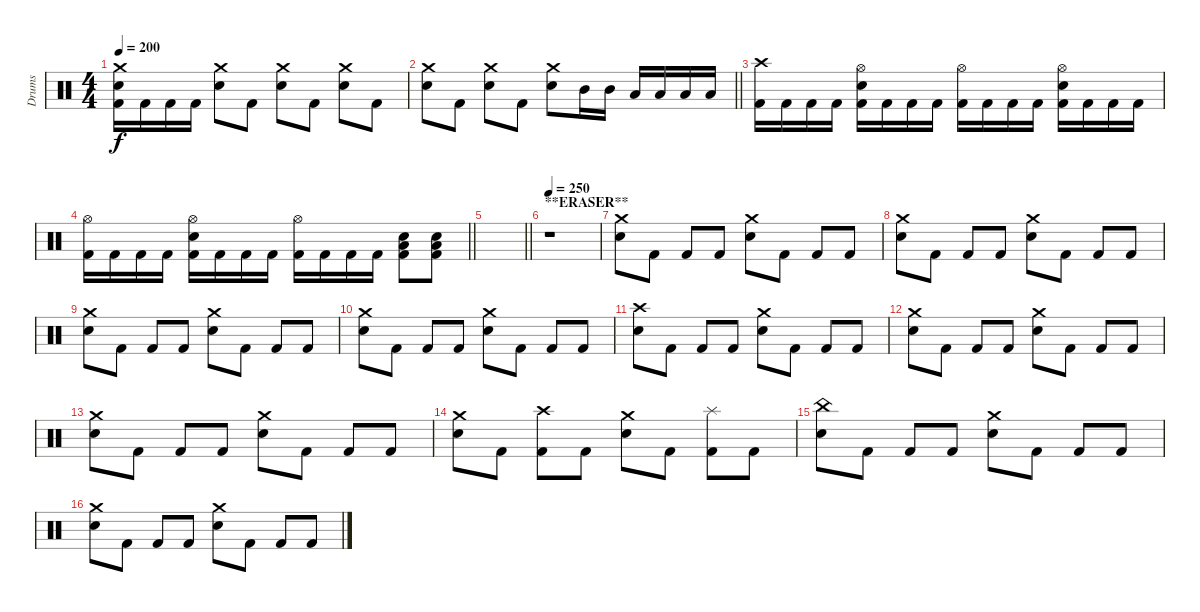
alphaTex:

\track ("Drums" "Drums") {instrument percussion}
\staff {score}
\articulation defaults
\ts (4 4)
\tempo 200
\clef neutral
\ks c
("Crash medium (hit)" "Electric Snare (hit)" "Kick (hit) 2").16{dy f} "Kick (hit) 2".16 "Kick (hit) 2".16 "Kick (hit) 2".16 ("Crash medium (hit)" "Electric Snare (hit)").8 "Kick (hit) 2".8 ("Crash medium (hit)" "Electric Snare (hit)").8 "Kick (hit) 2".8 ("Crash medium (hit)" "Electric Snare (hit)").8 "Kick (hit) 2".8 |
\barLineRight lightlight
("Crash medium (hit)" "Electric Snare (hit)").8 "Kick (hit) 2".8 ("Crash medium (hit)" "Electric Snare (hit)").8 "Kick (hit) 2".8 ("Crash medium (hit)" "Electric Snare (hit)").8 "Mid Tom (hit)".16 "Mid Tom (hit)".16 "Low Tom (hit)".16 "Low Tom (hit)".16 "Low Floor Tom (hit)".16 "Low Floor Tom (hit)".16 |
("Crash high (hit)" "Kick (hit) 2").16 "Kick (hit) 2".16 "Kick (hit) 2".16 "Kick (hit) 2".16 ("Hi-Hat (open)" "Electric Snare (hit)" "Kick (hit) 2").16 "Kick (hit) 2".16 "Kick (hit) 2".16 "Kick (hit) 2".16 ("Hi-Hat (open)" "Kick (hit) 2").16 "Kick (hit) 2".16 "Kick (hit) 2".16 "Kick (hit) 2".16 ("Hi-Hat (open)" "Electric Snare (hit)" "Kick (hit) 2").16 "Kick (hit) 2".16 "Kick (hit) 2".16 "Kick (hit) 2".16 |
\barLineRight lightlight
("Hi-Hat (open)" "Kick (hit) 2").16 "Kick (hit) 2".16 "Kick (hit) 2".16 "Kick (hit) 2".16 ("Hi-Hat (open)" "Electric Snare (hit)" "Kick (hit) 2").16 "Kick (hit) 2".16 "Kick (hit) 2".16 "Kick (hit) 2".16 ("Hi-Hat (open)" "Kick (hit) 2").16 "Kick (hit) 2".16 "Kick (hit) 2".16 "Kick (hit) 2".16 ("Electric Snare (hit)" "Low Floor Tom (hit)" "Kick (hit) 2").8 ("Electric Snare (hit)" "Low Floor Tom (hit)" "Kick (hit) 2").8 |
\barLineRight lightlight
|
\section ("" "**ERASER**")
\tempo 250
r.1 |
("Crash medium (hit)" "Electric Snare (hit)").8 "Kick (hit) 2".8 "Kick (hit) 2".8 "Kick (hit) 2".8 ("Crash medium (hit)" "Electric Snare (hit)").8 "Kick (hit) 2".8 "Kick (hit) 2".8 "Kick (hit) 2".8 |
("Crash medium (hit)" "Electric Snare (hit)").8 "Kick (hit) 2".8 "Kick (hit) 2".8 "Kick (hit) 2".8 ("Crash medium (hit)" "Electric Snare (hit)").8 "Kick (hit) 2".8 "Kick (hit) 2".8 "Kick (hit) 2".8 |
("Crash medium (hit)" "Electric Snare (hit)").8 "Kick (hit) 2".8 "Kick (hit) 2".8 "Kick (hit) 2".8 ("Crash medium (hit)" "Electric Snare (hit)").8 "Kick (hit) 2".8 "Kick (hit) 2".8 "Kick (hit) 2".8 |
("Crash medium (hit)" "Electric Snare (hit)").8 "Kick (hit) 2".8 "Kick (hit) 2".8 "Kick (hit) 2".8 ("Crash medium (hit)" "Electric Snare (hit)").8 "Kick (hit) 2".8 "Kick (hit) 2".8 "Kick (hit) 2".8 |
("Crash high (hit)" "Electric Snare (hit)").8 "Kick (hit) 2".8 "Kick (hit) 2".8 "Kick (hit) 2".8 ("Crash medium (hit)" "Electric Snare (hit)").8 "Kick (hit) 2".8 "Kick (hit) 2".8 "Kick (hit) 2".8 |
("Crash medium (hit)" "Electric Snare (hit)").8 "Kick (hit) 2".8 "Kick (hit) 2".8 "Kick (hit) 2".8 ("Crash medium (hit)" "Electric Snare (hit)").8 "Kick (hit) 2".8 "Kick (hit) 2".8 "Kick (hit) 2".8 |
("Crash medium (hit)" "Electric Snare (hit)").8 "Kick (hit) 2".8 "Kick (hit) 2".8 "Kick (hit) 2".8 ("Crash medium (hit)" "Electric Snare (hit)").8 "Kick (hit) 2".8 "Kick (hit) 2".8 "Kick (hit) 2".8 |
("Crash medium (hit)" "Electric Snare (hit)").8 "Kick (hit) 2".8 ("Crash high (hit)" "Kick (hit) 2").8 "Kick (hit) 2".8 ("Crash medium (hit)" "Electric Snare (hit)").8 "Kick (hit) 2".8 ("Splash (hit)" "Kick (hit) 2").8 "Kick (hit) 2".8 |
("China (hit)" "Electric Snare (hit)").8 "Kick (hit) 2".8 "Kick (hit) 2".8 "Kick (hit) 2".8 ("Crash medium (hit)" "Electric Snare (hit)").8 "Kick (hit) 2".8 "Kick (hit) 2".8 "Kick (hit) 2".8 |
("Crash medium (hit)" "Electric Snare (hit)").8 "Kick (hit) 2".8 "Kick (hit) 2".8 "Kick (hit) 2".8 ("Crash medium (hit)" "Electric Snare (hit)").8 "Kick (hit) 2".8 "Kick (hit) 2".8 "Kick (hit) 2".8
